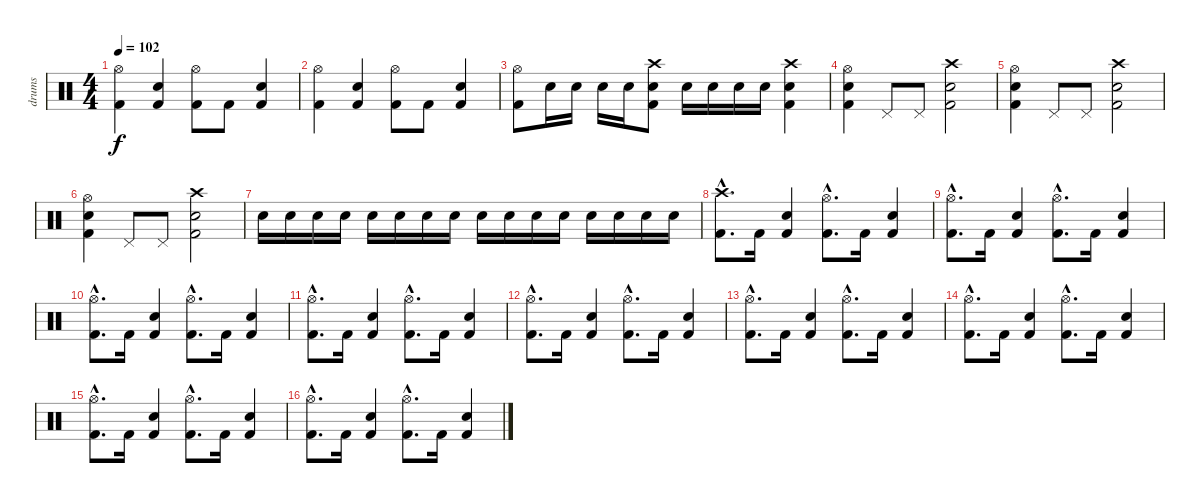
\track ("drums" "drums") {instrument percussion}
\staff {score}
\articulation defaults
\ts (4 4)
\tempo 102
\clef neutral
\ks c
("Hi-Hat (open)" "Kick (hit) 2").4{dy f} ("Electric Snare (hit)" "Kick (hit) 2").4 ("Hi-Hat (open)" "Kick (hit) 2").8 "Kick (hit) 2".8 ("Electric Snare (hit)" "Kick (hit) 2").4 |
("Hi-Hat (open)" "Kick (hit) 2").4 ("Electric Snare (hit)" "Kick (hit) 2").4 ("Hi-Hat (open)" "Kick (hit) 2").8 "Kick (hit) 2".8 ("Electric Snare (hit)" "Kick (hit) 2").4 |
("Hi-Hat (open)" "Kick (hit) 2").8 "Snare (hit) 2".16 "Snare (hit) 2".16 "Snare (hit) 2".16 "Snare (hit) 2".16 ("Crash high (hit)" "Snare (hit) 2" "Kick (hit) 2").8 "Snare (hit) 2".16 "Snare (hit) 2".16 "Snare (hit) 2".16 "Snare (hit) 2".16 ("Crash high (hit)" "Snare (hit) 2" "Kick (hit) 2").4 |
("Hi-Hat (open)" "Electric Snare (hit)" "Kick (hit) 2").4 "Pedal Hi-Hat (hit)".8 "Pedal Hi-Hat (hit)".8 ("Crash high (hit)" "Electric Snare (hit)" "Kick (hit) 2").2 |
("Hi-Hat (open)" "Electric Snare (hit)" "Kick (hit) 2").4 "Pedal Hi-Hat (hit)".8 "Pedal Hi-Hat (hit)".8 ("Crash high (hit)" "Electric Snare (hit)" "Kick (hit) 2").2 |
("Hi-Hat (open)" "Electric Snare (hit)" "Kick (hit) 2").4 "Pedal Hi-Hat (hit)".8 "Pedal Hi-Hat (hit)".8 ("Crash high (hit)" "Electric Snare (hit)" "Kick (hit) 2").2 |
"Electric Snare (hit)".16 "Electric Snare (hit)".16 "Electric Snare (hit)".16 "Electric Snare (hit)".16 "Electric Snare (hit)".16 "Electric Snare (hit)".16 "Electric Snare (hit)".16 "Electric Snare (hit)".16 "Electric Snare (hit)".16 "Electric Snare (hit)".16 "Electric Snare (hit)".16 "Electric Snare (hit)".16 "Electric Snare (hit)".16 "Electric Snare (hit)".16 "Electric Snare (hit)".16 "Electric Snare (hit)".16 |
("Crash high (hit)"{hac} "Kick (hit) 2"{hac}).8{d} "Kick (hit) 2".16 ("Electric Snare (hit)" "Kick (hit) 2").4 ("Hi-Hat (open)"{hac} "Kick (hit) 2"{hac}).8{d} "Kick (hit) 2".16 ("Electric Snare (hit)" "Kick (hit) 2").4 |
("Hi-Hat (open)"{hac} "Kick (hit) 2"{hac}).8{d} "Kick (hit) 2".16 ("Electric Snare (hit)" "Kick (hit) 2").4 ("Hi-Hat (open)"{hac} "Kick (hit) 2"{hac}).8{d} "Kick (hit) 2".16 ("Electric Snare (hit)" "Kick (hit) 2").4 |
("Hi-Hat (open)"{hac} "Kick (hit) 2"{hac}).8{d} "Kick (hit) 2".16 ("Electric Snare (hit)" "Kick (hit) 2").4 ("Hi-Hat (open)"{hac} "Kick (hit) 2"{hac}).8{d} "Kick (hit) 2".16 ("Electric Snare (hit)" "Kick (hit) 2").4 |
("Hi-Hat (open)"{hac} "Kick (hit) 2"{hac}).8{d} "Kick (hit) 2".16 ("Electric Snare (hit)" "Kick (hit) 2").4 ("Hi-Hat (open)"{hac} "Kick (hit) 2"{hac}).8{d} "Kick (hit) 2".16 ("Electric Snare (hit)" "Kick (hit) 2").4 |
("Hi-Hat (open)"{hac} "Kick (hit) 2"{hac}).8{d} "Kick (hit) 2".16 ("Electric Snare (hit)" "Kick (hit) 2").4 ("Hi-Hat (open)"{hac} "Kick (hit) 2"{hac}).8{d} "Kick (hit) 2".16 ("Electric Snare (hit)" "Kick (hit) 2").4 |
("Hi-Hat (open)"{hac} "Kick (hit) 2"{hac}).8{d} "Kick (hit) 2".16 ("Electric Snare (hit)" "Kick (hit) 2").4 ("Hi-Hat (open)"{hac} "Kick (hit) 2"{hac}).8{d} "Kick (hit) 2".16 ("Electric Snare (hit)" "Kick (hit) 2").4 |
("Hi-Hat (open)"{hac} "Kick (hit) 2"{hac}).8{d} "Kick (hit) 2".16 ("Electric Snare (hit)" "Kick (hit) 2").4 ("Hi-Hat (open)"{hac} "Kick (hit) 2"{hac}).8{d} "Kick (hit) 2".16 ("Electric Snare (hit)" "Kick (hit) 2").4 |
("Hi-Hat (open)"{hac} "Kick (hit) 2"{hac}).8{d} "Kick (hit) 2".16 ("Electric Snare (hit)" "Kick (hit) 2").4 ("Hi-Hat (open)"{hac} "Kick (hit) 2"{hac}).8{d} "Kick (hit) 2".16 ("Electric Snare (hit)" "Kick (hit) 2").4 |
("Hi-Hat (open)"{hac} "Kick (hit) 2"{hac}).8{d} "Kick (hit) 2".16 ("Electric Snare (hit)" "Kick (hit) 2").4 ("Hi-Hat (open)"{hac} "Kick (hit) 2"{hac}).8{d} "Kick (hit) 2".16 ("Electric Snare (hit)" "Kick (hit) 2").4
